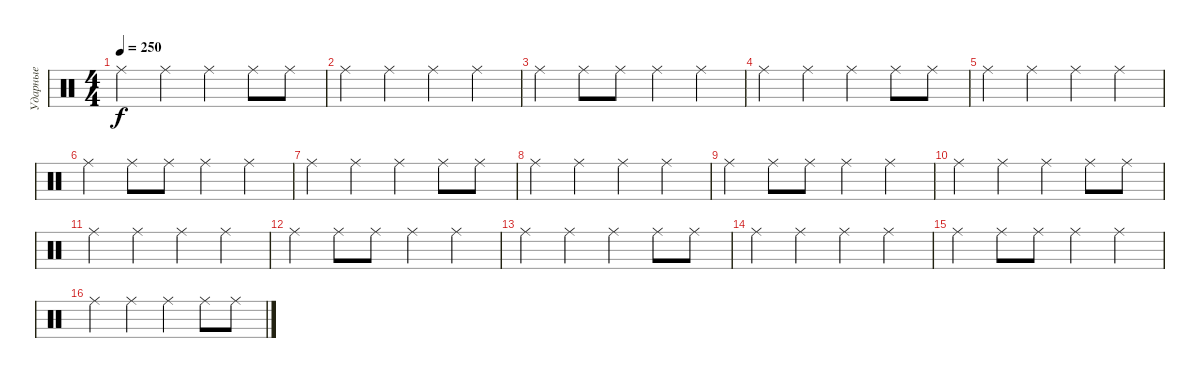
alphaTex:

\track ("Ударные" "Ударные") {instrument percussion}
\staff {score}
\articulation defaults
\ts (4 4)
\tempo 250
\clef neutral
\ks c "Ride (middle)".4{dy f} "Ride (middle)".4 "Ride (middle)".4 "Ride (middle)".8 "Ride (middle)".8
|
"Ride (middle)".4 "Ride (middle)".4 "Ride (middle)".4 "Ride (middle)".4 |
"Ride (middle)".4 "Ride (middle)".8 "Ride (middle)".8 "Ride (middle)".4 "Ride (middle)".4 |
"Ride (middle)".4 "Ride (middle)".4 "Ride (middle)".4 "Ride (middle)".8 "Ride (middle)".8 |
"Ride (middle)".4 "Ride (middle)".4 "Ride (middle)".4 "Ride (middle)".4 |
"Ride (middle)".4 "Ride (middle)".8 "Ride (middle)".8 "Ride (middle)".4 "Ride (middle)".4 |
"Ride (middle)".4 "Ride (middle)".4 "Ride (middle)".4 "Ride (middle)".8 "Ride (middle)".8 |
"Ride (middle)".4 "Ride (middle)".4 "Ride (middle)".4 "Ride (middle)".4 |
"Ride (middle)".4 "Ride (middle)".8 "Ride (middle)".8 "Ride (middle)".4 "Ride (middle)".4 |
"Ride (middle)".4 "Ride (middle)".4 "Ride (middle)".4 "Ride (middle)".8 "Ride (middle)".8 |
"Ride (middle)".4 "Ride (middle)".4 "Ride (middle)".4 "Ride (middle)".4 |
"Ride (middle)".4 "Ride (middle)".8 "Ride (middle)".8 "Ride (middle)".4 "Ride (middle)".4 |
"Ride (middle)".4 "Ride (middle)".4 "Ride (middle)".4 "Ride (middle)".8 "Ride (middle)".8 |
"Ride (middle)".4 "Ride (middle)".4 "Ride (middle)".4 "Ride (middle)".4 |
"Ride (middle)".4 "Ride (middle)".8 "Ride (middle)".8 "Ride (middle)".4 "Ride (middle)".4 |
"Ride (middle)".4 "Ride (middle)".4 "Ride (middle)".4 "Ride (middle)".8 "Ride (middle)".8
